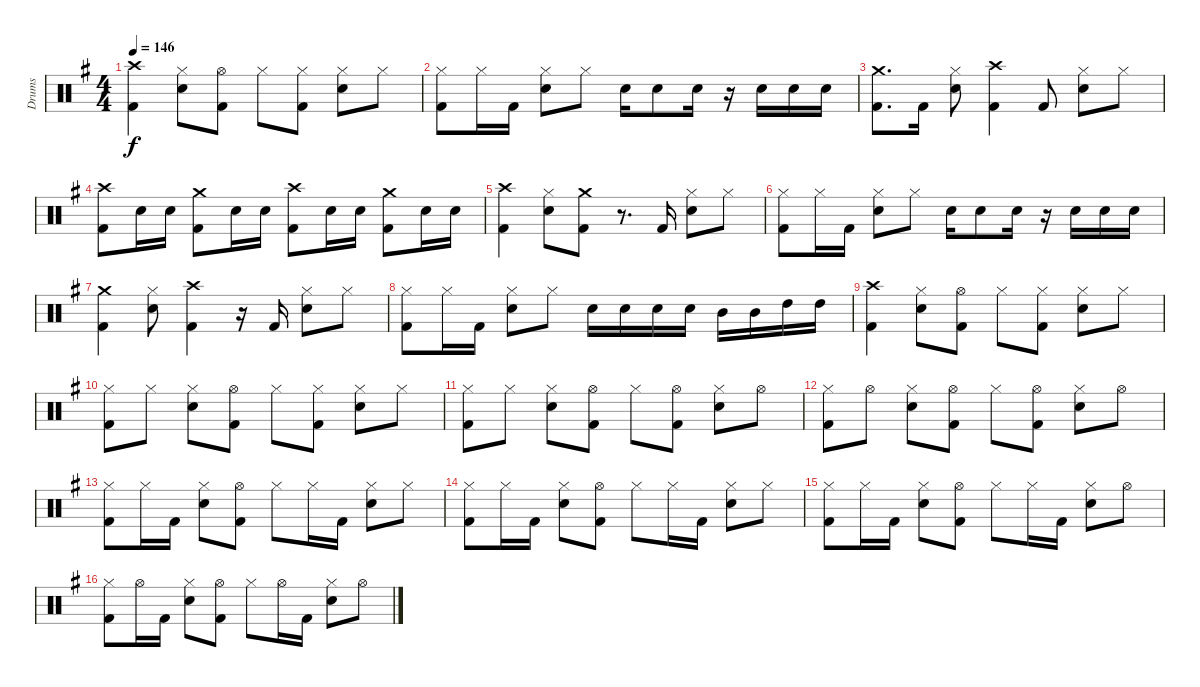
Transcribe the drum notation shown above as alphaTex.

\track ("Drums" "Drums") {instrument percussion}
\staff {score}
\articulation defaults
\ts (4 4)
\tempo 146
\clef neutral
\ks g
("Kick (hit) 2" "Crash high (hit)").4{dy f} ("Snare (hit) 2" "Hi-Hat (closed)").8 ("Kick (hit) 2" "Hi-Hat (open)").8 "Hi-Hat (closed)".8 ("Kick (hit) 2" "Hi-Hat (closed)").8 ("Snare (hit) 2" "Hi-Hat (closed)").8 "Hi-Hat (closed)".8 |
("Kick (hit) 2" "Hi-Hat (closed)").8 "Hi-Hat (closed)".16 "Kick (hit) 2".16 ("Snare (hit) 2" "Hi-Hat (closed)").8 "Hi-Hat (closed)".8 "Snare (hit) 2".16 "Snare (hit) 2".8 "Snare (hit) 2".16 r.16 "Snare (hit) 2".16 "Snare (hit) 2".16 "Snare (hit) 2".16 |
("Kick (hit) 2" "Crash medium (hit)").8{d} "Kick (hit) 2".16 ("Snare (hit) 2" "Hi-Hat (closed)").8 ("Kick (hit) 2" "Crash high (hit)").4 "Kick (hit) 2".8 ("Snare (hit) 2" "Hi-Hat (closed)").8 "Hi-Hat (closed)".8 |
("Kick (hit) 2" "Crash high (hit)").8 "Snare (hit) 2".16 "Snare (hit) 2".16 ("Kick (hit) 2" "Crash medium (hit)").8 "Snare (hit) 2".16 "Snare (hit) 2".16 ("Kick (hit) 2" "Crash high (hit)").8 "Snare (hit) 2".16 "Snare (hit) 2".16 ("Kick (hit) 2" "Crash medium (hit)").8 "Snare (hit) 2".16 "Snare (hit) 2".16 |
("Kick (hit) 2" "Crash high (hit)").4 ("Snare (hit) 2" "Hi-Hat (closed)").8 ("Kick (hit) 2" "Crash medium (hit)").8 r.8{d} "Kick (hit) 2".16 ("Snare (hit) 2" "Hi-Hat (closed)").8 "Hi-Hat (closed)".8 |
("Kick (hit) 2" "Hi-Hat (closed)").8 "Hi-Hat (closed)".16 "Kick (hit) 2".16 ("Snare (hit) 2" "Hi-Hat (closed)").8 "Hi-Hat (closed)".8 "Snare (hit) 2".16 "Snare (hit) 2".8 "Snare (hit) 2".16 r.16 "Snare (hit) 2".16 "Snare (hit) 2".16 "Snare (hit) 2".16 |
("Kick (hit) 2" "Crash medium (hit)").4 ("Snare (hit) 2" "Hi-Hat (closed)").8 ("Kick (hit) 2" "Crash high (hit)").4 r.16 "Kick (hit) 2".16 ("Snare (hit) 2" "Hi-Hat (closed)").8 "Hi-Hat (closed)".8 |
("Kick (hit) 2" "Hi-Hat (closed)").8 "Hi-Hat (closed)".16 "Kick (hit) 2".16 ("Snare (hit) 2" "Hi-Hat (closed)").8 "Hi-Hat (closed)".8 "Snare (hit) 2".16 "Snare (hit) 2".16 "Snare (hit) 2".16 "Snare (hit) 2".16 "Mid Tom (hit)".16 "Mid Tom (hit)".16 "High Tom (hit)".16 "High Tom (hit)".16 |
("Kick (hit) 2" "Crash high (hit)").4 ("Snare (hit) 2" "Hi-Hat (closed)").8 ("Kick (hit) 2" "Hi-Hat (open)").8 "Hi-Hat (closed)".8 ("Kick (hit) 2" "Hi-Hat (closed)").8 ("Snare (hit) 2" "Hi-Hat (closed)").8 "Hi-Hat (closed)".8 |
("Kick (hit) 2" "Hi-Hat (closed)").8 "Hi-Hat (closed)".8 ("Snare (hit) 2" "Hi-Hat (closed)").8 ("Kick (hit) 2" "Hi-Hat (open)").8 "Hi-Hat (closed)".8 ("Kick (hit) 2" "Hi-Hat (closed)").8 ("Snare (hit) 2" "Hi-Hat (closed)").8 "Hi-Hat (closed)".8 |
("Kick (hit) 2" "Hi-Hat (closed)").8 "Hi-Hat (closed)".8 ("Snare (hit) 2" "Hi-Hat (closed)").8 ("Kick (hit) 2" "Hi-Hat (open)").8 "Hi-Hat (closed)".8 ("Kick (hit) 2" "Hi-Hat (open)").8 ("Snare (hit) 2" "Hi-Hat (closed)").8 "Hi-Hat (open)".8 |
("Kick (hit) 2" "Hi-Hat (closed)").8 "Hi-Hat (open)".8 ("Snare (hit) 2" "Hi-Hat (closed)").8 ("Kick (hit) 2" "Hi-Hat (open)").8 "Hi-Hat (closed)".8 ("Kick (hit) 2" "Hi-Hat (open)").8 ("Snare (hit) 2" "Hi-Hat (closed)").8 "Hi-Hat (open)".8 |
("Kick (hit) 2" "Hi-Hat (closed)").8 "Hi-Hat (closed)".16 "Kick (hit) 2".16 ("Snare (hit) 2" "Hi-Hat (closed)").8 ("Kick (hit) 2" "Hi-Hat (open)").8 "Hi-Hat (closed)".8 "Hi-Hat (closed)".16 "Kick (hit) 2".16 ("Snare (hit) 2" "Hi-Hat (closed)").8 "Hi-Hat (closed)".8 |
("Kick (hit) 2" "Hi-Hat (closed)").8 "Hi-Hat (closed)".16 "Kick (hit) 2".16 ("Snare (hit) 2" "Hi-Hat (closed)").8 ("Kick (hit) 2" "Hi-Hat (open)").8 "Hi-Hat (closed)".8 "Hi-Hat (closed)".16 "Kick (hit) 2".16 ("Snare (hit) 2" "Hi-Hat (closed)").8 "Hi-Hat (closed)".8 |
("Kick (hit) 2" "Hi-Hat (closed)").8 "Hi-Hat (closed)".16 "Kick (hit) 2".16 ("Snare (hit) 2" "Hi-Hat (closed)").8 ("Kick (hit) 2" "Hi-Hat (open)").8 "Hi-Hat (closed)".8 "Hi-Hat (closed)".16 "Kick (hit) 2".16 ("Snare (hit) 2" "Hi-Hat (closed)").8 "Hi-Hat (open)".8 |
("Kick (hit) 2" "Hi-Hat (closed)").8 "Hi-Hat (open)".16 "Kick (hit) 2".16 ("Snare (hit) 2" "Hi-Hat (closed)").8 ("Kick (hit) 2" "Hi-Hat (open)").8 "Hi-Hat (closed)".8 "Hi-Hat (open)".16 "Kick (hit) 2".16 ("Snare (hit) 2" "Hi-Hat (closed)").8 "Hi-Hat (open)".8
